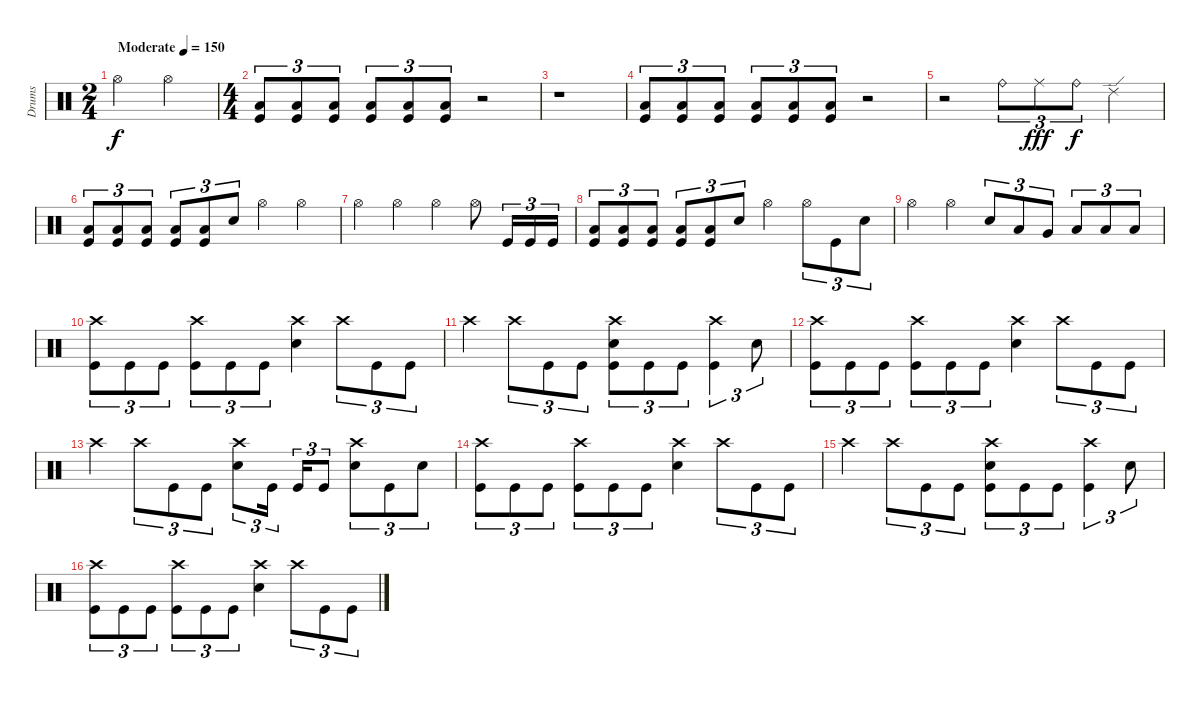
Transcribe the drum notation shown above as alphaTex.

\track ("Drums" "Drums") {instrument percussion}
\staff {score}
\articulation defaults
\ts (2 4)
\tempo (150 "Moderate")
\clef neutral
\ks c "Hi-Hat (open)".4{dy f} "Hi-Hat (open)".4
|
\ts (4 4)
("Kick (hit)" "Low Floor Tom (hit)").8{tu (3 2)} ("Kick (hit)" "Low Floor Tom (hit)").8{tu (3 2)} ("Kick (hit)" "Low Floor Tom (hit)").8{tu (3 2)} ("Kick (hit)" "Low Floor Tom (hit)").8{tu (3 2)} ("Kick (hit)" "Low Floor Tom (hit)").8{tu (3 2)} ("Kick (hit)" "Low Floor Tom (hit)").8{tu (3 2)} r.2 |
r.1 |
("Kick (hit)" "Low Floor Tom (hit)").8{tu (3 2)} ("Kick (hit)" "Low Floor Tom (hit)").8{tu (3 2)} ("Kick (hit)" "Low Floor Tom (hit)").8{tu (3 2)} ("Kick (hit)" "Low Floor Tom (hit)").8{tu (3 2)} ("Kick (hit)" "Low Floor Tom (hit)").8{tu (3 2)} ("Kick (hit)" "Low Floor Tom (hit)").8{tu (3 2)} r.2 |
r.2 "Ride (bell)".8{tu (3 2)} "Ride (middle)".8{tu (3 2) dy fff} "Ride (bell)".8{tu (3 2) dy f} "Ride (edge) 2".4 |
("Kick (hit)" "Low Floor Tom (hit)").8{tu (3 2)} ("Kick (hit)" "Low Floor Tom (hit)").8{tu (3 2)} ("Kick (hit)" "Low Floor Tom (hit)").8{tu (3 2)} ("Kick (hit)" "Low Floor Tom (hit)").8{tu (3 2)} ("Kick (hit)" "Low Floor Tom (hit)").8{tu (3 2)} "Electric Snare (hit)".8{tu (3 2)} "Hi-Hat (open)".4 "Hi-Hat (open)".4 |
"Hi-Hat (open)".4 "Hi-Hat (open)".4 "Hi-Hat (open)".4 "Hi-Hat (open)".8 "Kick (hit)".16{tu (3 2)} "Kick (hit)".16{tu (3 2)} "Kick (hit)".16{tu (3 2)} |
("Kick (hit)" "Low Floor Tom (hit)").8{tu (3 2)} ("Kick (hit)" "Low Floor Tom (hit)").8{tu (3 2)} ("Kick (hit)" "Low Floor Tom (hit)").8{tu (3 2)} ("Kick (hit)" "Low Floor Tom (hit)").8{tu (3 2)} ("Kick (hit)" "Low Floor Tom (hit)").8{tu (3 2)} "Electric Snare (hit)".8{tu (3 2)} "Hi-Hat (open)".4 "Hi-Hat (open)".8{tu (3 2)} "Kick (hit)".8{tu (3 2)} "Electric Snare (hit)".8{tu (3 2)} |
"Hi-Hat (open)".4 "Hi-Hat (open)".4 "Electric Snare (hit)".8{tu (3 2)} "Low Tom (hit)".8{tu (3 2)} "Very Low Tom (hit)".8{tu (3 2)} "Low Floor Tom (hit)".8{tu (3 2)} "Low Floor Tom (hit)".8{tu (3 2)} "Low Floor Tom (hit)".8{tu (3 2)} |
("Crash high (hit)" "Kick (hit)").8{tu (3 2)} "Kick (hit)".8{tu (3 2)} "Kick (hit)".8{tu (3 2)} ("Crash high (hit)" "Kick (hit)").8{tu (3 2)} "Kick (hit)".8{tu (3 2)} "Kick (hit)".8{tu (3 2)} ("Crash high (hit)" "Electric Snare (hit)").4 "Crash high (hit)".8{tu (3 2)} "Kick (hit)".8{tu (3 2)} "Kick (hit)".8{tu (3 2)} |
"Crash high (hit)".4 "Crash high (hit)".8{tu (3 2)} "Kick (hit)".8{tu (3 2)} "Kick (hit)".8{tu (3 2)} ("Crash high (hit)" "Electric Snare (hit)" "Kick (hit)").8{tu (3 2)} "Kick (hit)".8{tu (3 2)} "Kick (hit)".8{tu (3 2)} ("Crash high (hit)" "Kick (hit)").4{tu (3 2)} "Electric Snare (hit)".8{tu (3 2)} |
("Crash high (hit)" "Kick (hit)").8{tu (3 2)} "Kick (hit)".8{tu (3 2)} "Kick (hit)".8{tu (3 2)} ("Crash high (hit)" "Kick (hit)").8{tu (3 2)} "Kick (hit)".8{tu (3 2)} "Kick (hit)".8{tu (3 2)} ("Crash high (hit)" "Electric Snare (hit)").4 "Crash high (hit)".8{tu (3 2)} "Kick (hit)".8{tu (3 2)} "Kick (hit)".8{tu (3 2)} |
"Crash high (hit)".4 "Crash high (hit)".8{tu (3 2)} "Kick (hit)".8{tu (3 2)} "Kick (hit)".8{tu (3 2)} ("Crash high (hit)" "Electric Snare (hit)").8{tu (3 2)} "Kick (hit)".16{tu (3 2) beam splitsecondary} "Kick (hit)".16{tu (3 2)} "Kick (hit)".8{tu (3 2)} ("Crash high (hit)" "Electric Snare (hit)").8{tu (3 2)} "Kick (hit)".8{tu (3 2)} "Electric Snare (hit)".8{tu (3 2)} |
("Crash high (hit)" "Kick (hit)").8{tu (3 2)} "Kick (hit)".8{tu (3 2)} "Kick (hit)".8{tu (3 2)} ("Crash high (hit)" "Kick (hit)").8{tu (3 2)} "Kick (hit)".8{tu (3 2)} "Kick (hit)".8{tu (3 2)} ("Crash high (hit)" "Electric Snare (hit)").4 "Crash high (hit)".8{tu (3 2)} "Kick (hit)".8{tu (3 2)} "Kick (hit)".8{tu (3 2)} |
"Crash high (hit)".4 "Crash high (hit)".8{tu (3 2)} "Kick (hit)".8{tu (3 2)} "Kick (hit)".8{tu (3 2)} ("Crash high (hit)" "Electric Snare (hit)" "Kick (hit)").8{tu (3 2)} "Kick (hit)".8{tu (3 2)} "Kick (hit)".8{tu (3 2)} ("Crash high (hit)" "Kick (hit)").4{tu (3 2)} "Electric Snare (hit)".8{tu (3 2)} |
("Crash high (hit)" "Kick (hit)").8{tu (3 2)} "Kick (hit)".8{tu (3 2)} "Kick (hit)".8{tu (3 2)} ("Crash high (hit)" "Kick (hit)").8{tu (3 2)} "Kick (hit)".8{tu (3 2)} "Kick (hit)".8{tu (3 2)} ("Crash high (hit)" "Electric Snare (hit)").4 "Crash high (hit)".8{tu (3 2)} "Kick (hit)".8{tu (3 2)} "Kick (hit)".8{tu (3 2)}
